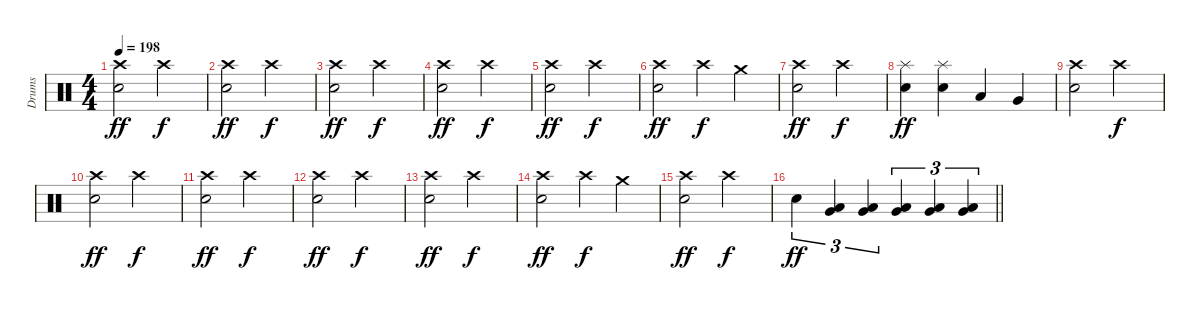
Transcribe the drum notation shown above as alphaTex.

\track ("Drums" "Drums") {instrument percussion}
\staff {score}
\articulation defaults
\ts (4 4)
\section ("" "")
\tempo 198
\clef neutral
\ks c
("Crash high (hit)" "Snare (hit) 2").2{dy ff volume 10} "Crash high (hit)".2{dy f} |
("Crash high (hit)" "Snare (hit) 2").2{dy ff} "Crash high (hit)".2{dy f} |
("Crash high (hit)" "Snare (hit) 2").2{dy ff} "Crash high (hit)".2{dy f} |
("Crash high (hit)" "Snare (hit) 2").2{dy ff} "Crash high (hit)".2{dy f} |
("Crash high (hit)" "Snare (hit) 2").2{dy ff volume 9} "Crash high (hit)".2{dy f} |
("Crash high (hit)" "Snare (hit) 2").2{dy ff} "Crash high (hit)".4{dy f} "Crash medium (hit)".4 |
("Crash high (hit)" "Snare (hit) 2").2{dy ff} "Crash high (hit)".2{dy f} |
("Splash (hit)" "Snare (hit) 2").4{dy ff} ("Splash (hit)" "Snare (hit) 2").4 "Low Tom (hit)".4 "Very Low Tom (hit)".4 |
("Crash high (hit)" "Snare (hit) 2").2{volume 8} "Crash high (hit)".2{dy f} |
("Crash high (hit)" "Snare (hit) 2").2{dy ff} "Crash high (hit)".2{dy f} |
("Crash high (hit)" "Snare (hit) 2").2{dy ff} "Crash high (hit)".2{dy f} |
("Crash high (hit)" "Snare (hit) 2").2{dy ff} "Crash high (hit)".2{dy f} |
("Crash high (hit)" "Snare (hit) 2").2{dy ff volume 7} "Crash high (hit)".2{dy f} |
("Crash high (hit)" "Snare (hit) 2").2{dy ff} "Crash high (hit)".4{dy f} "Crash medium (hit)".4 |
("Crash high (hit)" "Snare (hit) 2").2{dy ff} "Crash high (hit)".2{dy f} |
\barLineRight lightlight "Snare (hit) 2".4{tu (3 2) dy ff}
("Low Tom (hit)" "Very Low Tom (hit)").4{tu (3 2)} ("Low Tom (hit)" "Very Low Tom (hit)").4{tu (3 2)} ("Very Low Tom (hit)" "Low Floor Tom (hit)").4{tu (3 2)} ("Very Low Tom (hit)" "Low Floor Tom (hit)").4{tu (3 2)} ("Very Low Tom (hit)" "Low Floor Tom (hit)").4{tu (3 2)}
